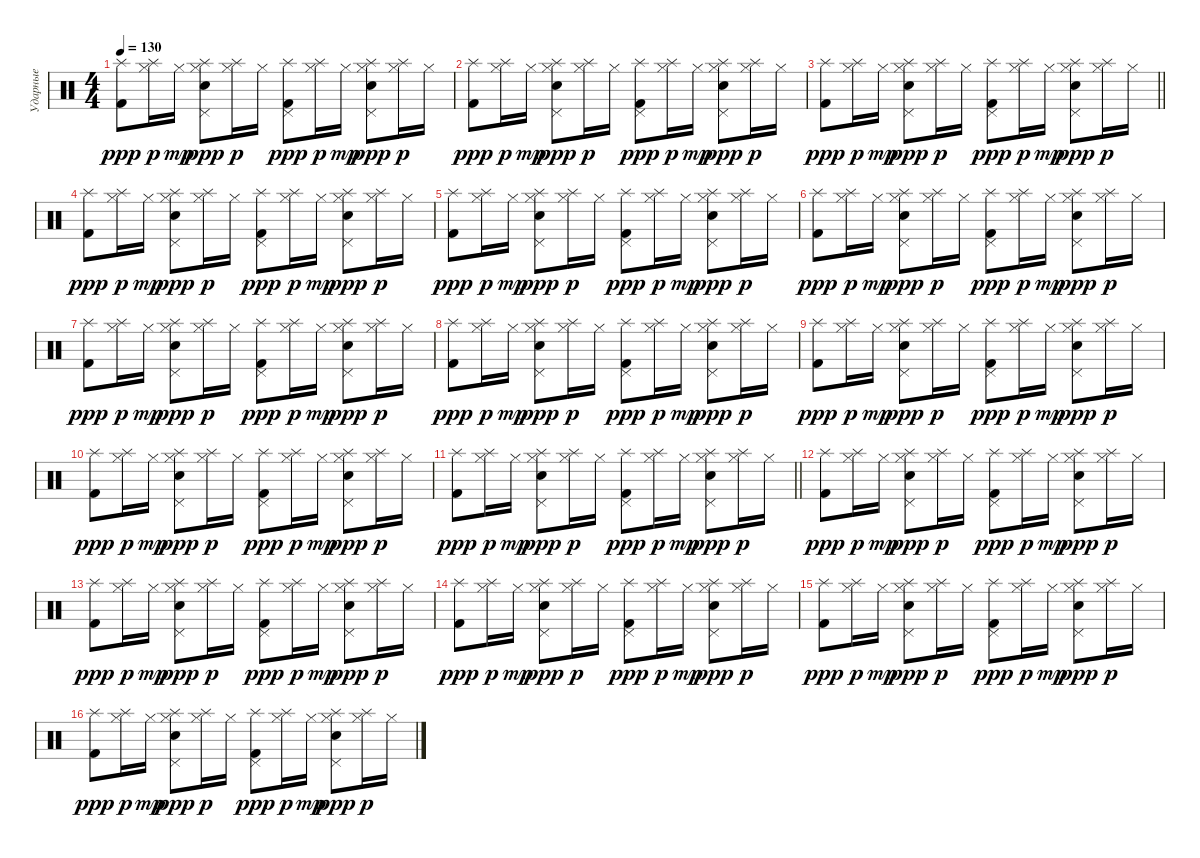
\track ("Ударные" "Ударные") {instrument percussion bank 17}
\staff {score}
\articulation defaults
\ts (4 4)
\tempo 130
\clef neutral
\ks c
("Kick (hit) 2" "Splash (hit)").8{dy ppp} ("Hi-Hat (closed)" "Splash (hit)").16{dy p} "Hi-Hat (closed)".16{dy mp} ("Snare (hit) 2" "Pedal Hi-Hat (hit)" "Hi-Hat (closed)" "Splash (hit)").8{dy ppp} ("Hi-Hat (closed)" "Splash (hit)").16{dy p} "Hi-Hat (closed)".16 ("Kick (hit) 2" "Pedal Hi-Hat (hit)" "Splash (hit)").8{dy ppp} ("Hi-Hat (closed)" "Splash (hit)").16{dy p} "Hi-Hat (closed)".16{dy mp} ("Snare (hit) 2" "Pedal Hi-Hat (hit)" "Hi-Hat (closed)" "Splash (hit)").8{dy ppp} ("Hi-Hat (closed)" "Splash (hit)").16{dy p} "Hi-Hat (closed)".16 |
("Kick (hit) 2" "Splash (hit)").8{dy ppp} ("Hi-Hat (closed)" "Splash (hit)").16{dy p} "Hi-Hat (closed)".16{dy mp} ("Snare (hit) 2" "Pedal Hi-Hat (hit)" "Hi-Hat (closed)" "Splash (hit)").8{dy ppp} ("Hi-Hat (closed)" "Splash (hit)").16{dy p} "Hi-Hat (closed)".16 ("Kick (hit) 2" "Pedal Hi-Hat (hit)" "Splash (hit)").8{dy ppp} ("Hi-Hat (closed)" "Splash (hit)").16{dy p} "Hi-Hat (closed)".16{dy mp} ("Snare (hit) 2" "Pedal Hi-Hat (hit)" "Hi-Hat (closed)" "Splash (hit)").8{dy ppp} ("Hi-Hat (closed)" "Splash (hit)").16{dy p} "Hi-Hat (closed)".16 |
\barLineRight lightlight
("Kick (hit) 2" "Splash (hit)").8{dy ppp} ("Hi-Hat (closed)" "Splash (hit)").16{dy p} "Hi-Hat (closed)".16{dy mp} ("Snare (hit) 2" "Pedal Hi-Hat (hit)" "Hi-Hat (closed)" "Splash (hit)").8{dy ppp} ("Hi-Hat (closed)" "Splash (hit)").16{dy p} "Hi-Hat (closed)".16 ("Kick (hit) 2" "Pedal Hi-Hat (hit)" "Splash (hit)").8{dy ppp} ("Hi-Hat (closed)" "Splash (hit)").16{dy p} "Hi-Hat (closed)".16{dy mp} ("Snare (hit) 2" "Pedal Hi-Hat (hit)" "Hi-Hat (closed)" "Splash (hit)").8{dy ppp} ("Hi-Hat (closed)" "Splash (hit)").16{dy p} "Hi-Hat (closed)".16 |
("Kick (hit) 2" "Splash (hit)").8{dy ppp} ("Hi-Hat (closed)" "Splash (hit)").16{dy p} "Hi-Hat (closed)".16{dy mp} ("Snare (hit) 2" "Pedal Hi-Hat (hit)" "Hi-Hat (closed)" "Splash (hit)").8{dy ppp} ("Hi-Hat (closed)" "Splash (hit)").16{dy p} "Hi-Hat (closed)".16 ("Kick (hit) 2" "Pedal Hi-Hat (hit)" "Splash (hit)").8{dy ppp} ("Hi-Hat (closed)" "Splash (hit)").16{dy p} "Hi-Hat (closed)".16{dy mp} ("Snare (hit) 2" "Pedal Hi-Hat (hit)" "Hi-Hat (closed)" "Splash (hit)").8{dy ppp} ("Hi-Hat (closed)" "Splash (hit)").16{dy p} "Hi-Hat (closed)".16 |
("Kick (hit) 2" "Splash (hit)").8{dy ppp} ("Hi-Hat (closed)" "Splash (hit)").16{dy p} "Hi-Hat (closed)".16{dy mp} ("Snare (hit) 2" "Pedal Hi-Hat (hit)" "Hi-Hat (closed)" "Splash (hit)").8{dy ppp} ("Hi-Hat (closed)" "Splash (hit)").16{dy p} "Hi-Hat (closed)".16 ("Kick (hit) 2" "Pedal Hi-Hat (hit)" "Splash (hit)").8{dy ppp} ("Hi-Hat (closed)" "Splash (hit)").16{dy p} "Hi-Hat (closed)".16{dy mp} ("Snare (hit) 2" "Pedal Hi-Hat (hit)" "Hi-Hat (closed)" "Splash (hit)").8{dy ppp} ("Hi-Hat (closed)" "Splash (hit)").16{dy p} "Hi-Hat (closed)".16 |
("Kick (hit) 2" "Splash (hit)").8{dy ppp} ("Hi-Hat (closed)" "Splash (hit)").16{dy p} "Hi-Hat (closed)".16{dy mp} ("Snare (hit) 2" "Pedal Hi-Hat (hit)" "Hi-Hat (closed)" "Splash (hit)").8{dy ppp} ("Hi-Hat (closed)" "Splash (hit)").16{dy p} "Hi-Hat (closed)".16 ("Kick (hit) 2" "Pedal Hi-Hat (hit)" "Splash (hit)").8{dy ppp} ("Hi-Hat (closed)" "Splash (hit)").16{dy p} "Hi-Hat (closed)".16{dy mp} ("Snare (hit) 2" "Pedal Hi-Hat (hit)" "Hi-Hat (closed)" "Splash (hit)").8{dy ppp} ("Hi-Hat (closed)" "Splash (hit)").16{dy p} "Hi-Hat (closed)".16 |
("Kick (hit) 2" "Splash (hit)").8{dy ppp} ("Hi-Hat (closed)" "Splash (hit)").16{dy p} "Hi-Hat (closed)".16{dy mp} ("Snare (hit) 2" "Pedal Hi-Hat (hit)" "Hi-Hat (closed)" "Splash (hit)").8{dy ppp} ("Hi-Hat (closed)" "Splash (hit)").16{dy p} "Hi-Hat (closed)".16 ("Kick (hit) 2" "Pedal Hi-Hat (hit)" "Splash (hit)").8{dy ppp} ("Hi-Hat (closed)" "Splash (hit)").16{dy p} "Hi-Hat (closed)".16{dy mp} ("Snare (hit) 2" "Pedal Hi-Hat (hit)" "Hi-Hat (closed)" "Splash (hit)").8{dy ppp} ("Hi-Hat (closed)" "Splash (hit)").16{dy p} "Hi-Hat (closed)".16 |
("Kick (hit) 2" "Splash (hit)").8{dy ppp} ("Hi-Hat (closed)" "Splash (hit)").16{dy p} "Hi-Hat (closed)".16{dy mp} ("Snare (hit) 2" "Pedal Hi-Hat (hit)" "Hi-Hat (closed)" "Splash (hit)").8{dy ppp} ("Hi-Hat (closed)" "Splash (hit)").16{dy p} "Hi-Hat (closed)".16 ("Kick (hit) 2" "Pedal Hi-Hat (hit)" "Splash (hit)").8{dy ppp} ("Hi-Hat (closed)" "Splash (hit)").16{dy p} "Hi-Hat (closed)".16{dy mp} ("Snare (hit) 2" "Pedal Hi-Hat (hit)" "Hi-Hat (closed)" "Splash (hit)").8{dy ppp} ("Hi-Hat (closed)" "Splash (hit)").16{dy p} "Hi-Hat (closed)".16 |
("Kick (hit) 2" "Splash (hit)").8{dy ppp} ("Hi-Hat (closed)" "Splash (hit)").16{dy p} "Hi-Hat (closed)".16{dy mp} ("Snare (hit) 2" "Pedal Hi-Hat (hit)" "Hi-Hat (closed)" "Splash (hit)").8{dy ppp} ("Hi-Hat (closed)" "Splash (hit)").16{dy p} "Hi-Hat (closed)".16 ("Kick (hit) 2" "Pedal Hi-Hat (hit)" "Splash (hit)").8{dy ppp} ("Hi-Hat (closed)" "Splash (hit)").16{dy p} "Hi-Hat (closed)".16{dy mp} ("Snare (hit) 2" "Pedal Hi-Hat (hit)" "Hi-Hat (closed)" "Splash (hit)").8{dy ppp} ("Hi-Hat (closed)" "Splash (hit)").16{dy p} "Hi-Hat (closed)".16 |
("Kick (hit) 2" "Splash (hit)").8{dy ppp} ("Hi-Hat (closed)" "Splash (hit)").16{dy p} "Hi-Hat (closed)".16{dy mp} ("Snare (hit) 2" "Pedal Hi-Hat (hit)" "Hi-Hat (closed)" "Splash (hit)").8{dy ppp} ("Hi-Hat (closed)" "Splash (hit)").16{dy p} "Hi-Hat (closed)".16 ("Kick (hit) 2" "Pedal Hi-Hat (hit)" "Splash (hit)").8{dy ppp} ("Hi-Hat (closed)" "Splash (hit)").16{dy p} "Hi-Hat (closed)".16{dy mp} ("Snare (hit) 2" "Pedal Hi-Hat (hit)" "Hi-Hat (closed)" "Splash (hit)").8{dy ppp} ("Hi-Hat (closed)" "Splash (hit)").16{dy p} "Hi-Hat (closed)".16 |
\barLineRight lightlight
("Kick (hit) 2" "Splash (hit)").8{dy ppp} ("Hi-Hat (closed)" "Splash (hit)").16{dy p} "Hi-Hat (closed)".16{dy mp} ("Snare (hit) 2" "Pedal Hi-Hat (hit)" "Hi-Hat (closed)" "Splash (hit)").8{dy ppp} ("Hi-Hat (closed)" "Splash (hit)").16{dy p} "Hi-Hat (closed)".16 ("Kick (hit) 2" "Pedal Hi-Hat (hit)" "Splash (hit)").8{dy ppp} ("Hi-Hat (closed)" "Splash (hit)").16{dy p} "Hi-Hat (closed)".16{dy mp} ("Snare (hit) 2" "Pedal Hi-Hat (hit)" "Hi-Hat (closed)" "Splash (hit)").8{dy ppp} ("Hi-Hat (closed)" "Splash (hit)").16{dy p} "Hi-Hat (closed)".16 |
("Kick (hit) 2" "Splash (hit)").8{dy ppp} ("Hi-Hat (closed)" "Splash (hit)").16{dy p} "Hi-Hat (closed)".16{dy mp} ("Snare (hit) 2" "Pedal Hi-Hat (hit)" "Hi-Hat (closed)" "Splash (hit)").8{dy ppp} ("Hi-Hat (closed)" "Splash (hit)").16{dy p} "Hi-Hat (closed)".16 ("Kick (hit) 2" "Pedal Hi-Hat (hit)" "Splash (hit)").8{dy ppp} ("Hi-Hat (closed)" "Splash (hit)").16{dy p} "Hi-Hat (closed)".16{dy mp} ("Snare (hit) 2" "Pedal Hi-Hat (hit)" "Hi-Hat (closed)" "Splash (hit)").8{dy ppp} ("Hi-Hat (closed)" "Splash (hit)").16{dy p} "Hi-Hat (closed)".16 |
("Kick (hit) 2" "Splash (hit)").8{dy ppp} ("Hi-Hat (closed)" "Splash (hit)").16{dy p} "Hi-Hat (closed)".16{dy mp} ("Snare (hit) 2" "Pedal Hi-Hat (hit)" "Hi-Hat (closed)" "Splash (hit)").8{dy ppp} ("Hi-Hat (closed)" "Splash (hit)").16{dy p} "Hi-Hat (closed)".16 ("Kick (hit) 2" "Pedal Hi-Hat (hit)" "Splash (hit)").8{dy ppp} ("Hi-Hat (closed)" "Splash (hit)").16{dy p} "Hi-Hat (closed)".16{dy mp} ("Snare (hit) 2" "Pedal Hi-Hat (hit)" "Hi-Hat (closed)" "Splash (hit)").8{dy ppp} ("Hi-Hat (closed)" "Splash (hit)").16{dy p} "Hi-Hat (closed)".16 |
("Kick (hit) 2" "Splash (hit)").8{dy ppp} ("Hi-Hat (closed)" "Splash (hit)").16{dy p} "Hi-Hat (closed)".16{dy mp} ("Snare (hit) 2" "Pedal Hi-Hat (hit)" "Hi-Hat (closed)" "Splash (hit)").8{dy ppp} ("Hi-Hat (closed)" "Splash (hit)").16{dy p} "Hi-Hat (closed)".16 ("Kick (hit) 2" "Pedal Hi-Hat (hit)" "Splash (hit)").8{dy ppp} ("Hi-Hat (closed)" "Splash (hit)").16{dy p} "Hi-Hat (closed)".16{dy mp} ("Snare (hit) 2" "Pedal Hi-Hat (hit)" "Hi-Hat (closed)" "Splash (hit)").8{dy ppp} ("Hi-Hat (closed)" "Splash (hit)").16{dy p} "Hi-Hat (closed)".16 |
("Kick (hit) 2" "Splash (hit)").8{dy ppp} ("Hi-Hat (closed)" "Splash (hit)").16{dy p} "Hi-Hat (closed)".16{dy mp} ("Snare (hit) 2" "Pedal Hi-Hat (hit)" "Hi-Hat (closed)" "Splash (hit)").8{dy ppp} ("Hi-Hat (closed)" "Splash (hit)").16{dy p} "Hi-Hat (closed)".16 ("Kick (hit) 2" "Pedal Hi-Hat (hit)" "Splash (hit)").8{dy ppp} ("Hi-Hat (closed)" "Splash (hit)").16{dy p} "Hi-Hat (closed)".16{dy mp} ("Snare (hit) 2" "Pedal Hi-Hat (hit)" "Hi-Hat (closed)" "Splash (hit)").8{dy ppp} ("Hi-Hat (closed)" "Splash (hit)").16{dy p} "Hi-Hat (closed)".16 |
("Kick (hit) 2" "Splash (hit)").8{dy ppp} ("Hi-Hat (closed)" "Splash (hit)").16{dy p} "Hi-Hat (closed)".16{dy mp} ("Snare (hit) 2" "Pedal Hi-Hat (hit)" "Hi-Hat (closed)" "Splash (hit)").8{dy ppp} ("Hi-Hat (closed)" "Splash (hit)").16{dy p} "Hi-Hat (closed)".16 ("Kick (hit) 2" "Pedal Hi-Hat (hit)" "Splash (hit)").8{dy ppp} ("Hi-Hat (closed)" "Splash (hit)").16{dy p} "Hi-Hat (closed)".16{dy mp} ("Snare (hit) 2" "Pedal Hi-Hat (hit)" "Hi-Hat (closed)" "Splash (hit)").8{dy ppp} ("Hi-Hat (closed)" "Splash (hit)").16{dy p} "Hi-Hat (closed)".16
